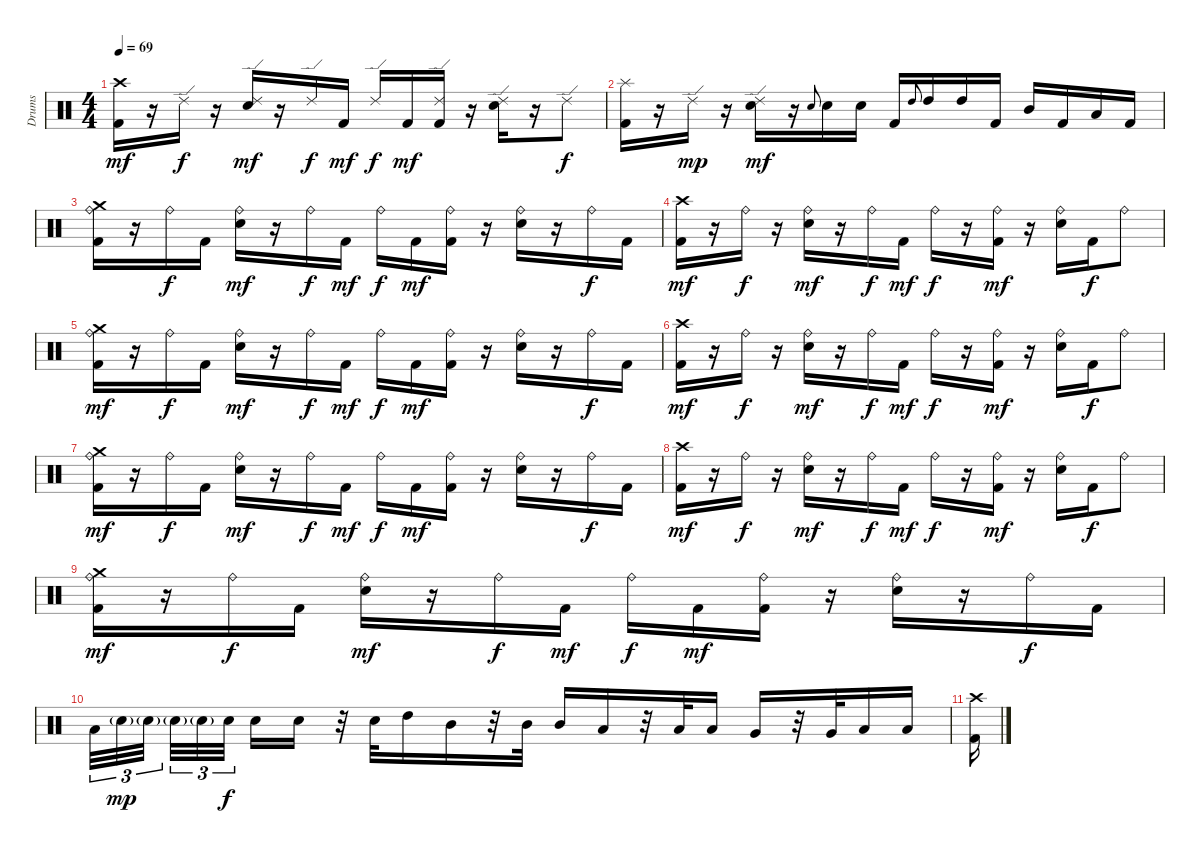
\track ("Drums" "Drums") {instrument percussion}
\staff {score}
\articulation defaults
\ts (4 4)
\tempo 69
\clef neutral
\ks c
("Crash high (hit)" "Kick (hit) 2").16{dy mf} r.16 "Ride (edge) 2".16{dy f} r.16 ("Ride (edge) 2" "Electric Snare (hit)").16{dy mf} r.16 "Ride (edge) 2".16{dy f} "Kick (hit) 2".16{dy mf} "Ride (edge) 2".16{dy f} "Kick (hit) 2".16{dy mf} ("Ride (edge) 2" "Kick (hit) 2").16 r.16 ("Ride (edge) 2" "Electric Snare (hit)").16 r.16 "Ride (edge) 2".8{dy f} |
("Kick (hit) 2" "Splash (hit)").16 r.16 "Ride (edge) 2".16{dy mp} r.16 ("Ride (edge) 2" "Electric Snare (hit)").16{dy mf} r.16 "Electric Snare (hit)".8{gr onbeat} "Electric Snare (hit)".16 "Electric Snare (hit)".16 "Kick (hit) 2".16 "High Tom (hit)".8{gr onbeat} "High Tom (hit)".16 "High Tom (hit)".16 "Kick (hit) 2".16 "Mid Tom (hit)".16 "Kick (hit) 2".16 "Low Tom (hit)".16 "Kick (hit) 2".16 |
("Ride (bell)" "Kick (hit) 2" "Crash medium (hit)").16 r.16 "Ride (bell)".16{dy f} "Kick (hit) 2".16 ("Ride (bell)" "Electric Snare (hit)").16{dy mf} r.16 "Ride (bell)".16{dy f} "Kick (hit) 2".16{dy mf} "Ride (bell)".16{dy f} "Kick (hit) 2".16{dy mf} ("Ride (bell)" "Kick (hit) 2").16 r.16 ("Ride (bell)" "Electric Snare (hit)").16 r.16 "Ride (bell)".16{dy f} "Kick (hit) 2".16 |
("Kick (hit) 2" "Crash high (hit)").16{dy mf} r.16 "Ride (bell)".16{dy f} r.16 ("Ride (bell)" "Electric Snare (hit)").16{dy mf} r.16 "Ride (bell)".16{dy f} "Kick (hit) 2".16{dy mf} "Ride (bell)".16{dy f} r.16 ("Ride (bell)" "Kick (hit) 2").16{dy mf} r.16 ("Ride (bell)" "Electric Snare (hit)").16 "Kick (hit) 2".16{dy f} "Ride (bell)".8 |
("Ride (bell)" "Kick (hit) 2" "Crash medium (hit)").16{dy mf} r.16 "Ride (bell)".16{dy f} "Kick (hit) 2".16 ("Ride (bell)" "Electric Snare (hit)").16{dy mf} r.16 "Ride (bell)".16{dy f} "Kick (hit) 2".16{dy mf} "Ride (bell)".16{dy f} "Kick (hit) 2".16{dy mf} ("Ride (bell)" "Kick (hit) 2").16 r.16 ("Ride (bell)" "Electric Snare (hit)").16 r.16 "Ride (bell)".16{dy f} "Kick (hit) 2".16 |
("Kick (hit) 2" "Crash high (hit)").16{dy mf} r.16 "Ride (bell)".16{dy f} r.16 ("Ride (bell)" "Electric Snare (hit)").16{dy mf} r.16 "Ride (bell)".16{dy f} "Kick (hit) 2".16{dy mf} "Ride (bell)".16{dy f} r.16 ("Ride (bell)" "Kick (hit) 2").16{dy mf} r.16 ("Ride (bell)" "Electric Snare (hit)").16 "Kick (hit) 2".16{dy f} "Ride (bell)".8 |
("Ride (bell)" "Kick (hit) 2" "Crash medium (hit)").16{dy mf} r.16 "Ride (bell)".16{dy f} "Kick (hit) 2".16 ("Ride (bell)" "Electric Snare (hit)").16{dy mf} r.16 "Ride (bell)".16{dy f} "Kick (hit) 2".16{dy mf} "Ride (bell)".16{dy f} "Kick (hit) 2".16{dy mf} ("Ride (bell)" "Kick (hit) 2").16 r.16 ("Ride (bell)" "Electric Snare (hit)").16 r.16 "Ride (bell)".16{dy f} "Kick (hit) 2".16 |
("Kick (hit) 2" "Crash high (hit)").16{dy mf} r.16 "Ride (bell)".16{dy f} r.16 ("Ride (bell)" "Electric Snare (hit)").16{dy mf} r.16 "Ride (bell)".16{dy f} "Kick (hit) 2".16{dy mf} "Ride (bell)".16{dy f} r.16 ("Ride (bell)" "Kick (hit) 2").16{dy mf} r.16 ("Ride (bell)" "Electric Snare (hit)").16 "Kick (hit) 2".16{dy f} "Ride (bell)".8 |
("Ride (bell)" "Kick (hit) 2" "Crash medium (hit)").16{dy mf} r.16 "Ride (bell)".16{dy f} "Kick (hit) 2".16 ("Ride (bell)" "Electric Snare (hit)").16{dy mf} r.16 "Ride (bell)".16{dy f} "Kick (hit) 2".16{dy mf} "Ride (bell)".16{dy f} "Kick (hit) 2".16{dy mf} ("Ride (bell)" "Kick (hit) 2").16 r.16 ("Ride (bell)" "Electric Snare (hit)").16 r.16 "Ride (bell)".16{dy f} "Kick (hit) 2".16 |
"Low Tom (hit)".32{tu (3 2)} "Electric Snare (hit)"{g}.32{tu (3 2) dy mp} "Electric Snare (hit)"{g}.32{tu (3 2) beam splitsecondary} "Electric Snare (hit)"{g}.32{tu (3 2)} "Electric Snare (hit)"{g}.32{tu (3 2)} "Electric Snare (hit)".32{tu (3 2) dy f beam splitsecondary} "Electric Snare (hit)".16 "Electric Snare (hit)".16 r.32 "Electric Snare (hit)".32 "High Tom (hit)".16 "Mid Tom (hit)".16 r.32 "Mid Tom (hit)".32 "Mid Tom (hit)".16 "Low Tom (hit)".16 r.32 "Low Tom (hit)".32 "Low Tom (hit)".16 "Very Low Tom (hit)".16 r.32 "Very Low Tom (hit)".32 "Low Floor Tom (hit)".16 "Low Floor Tom (hit)".16 |
("Crash high (hit)" "Kick (hit) 2").16
